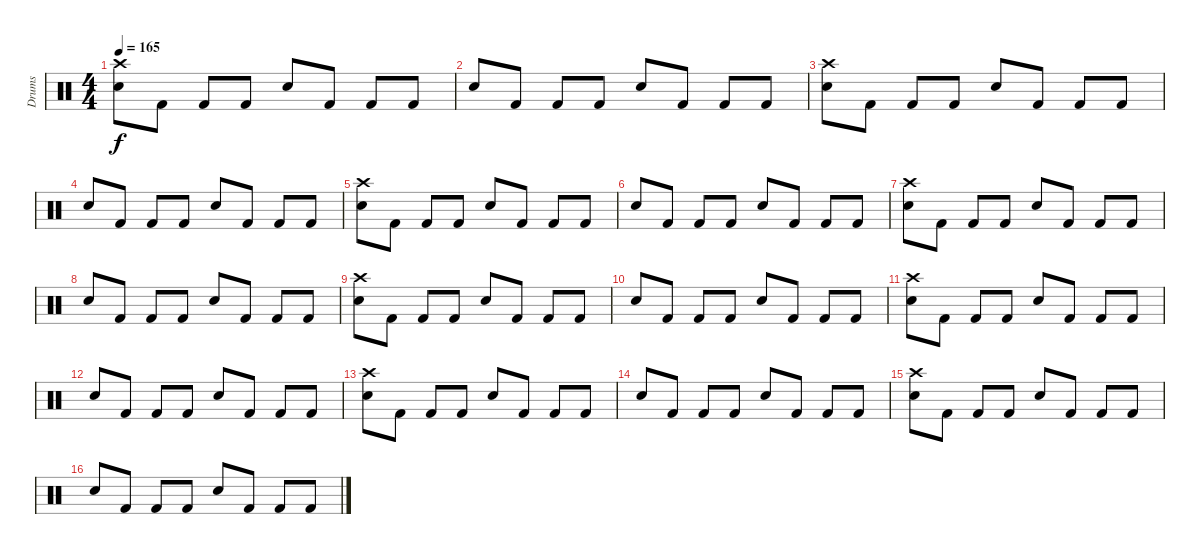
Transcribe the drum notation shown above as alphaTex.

\track ("Drums" "Drums") {instrument percussion}
\staff {score}
\articulation defaults
\ts (4 4)
\tempo 165
\clef neutral
\ks c
("Snare (hit) 2" "Crash high (hit)").8{dy f} "Kick (hit) 2".8 "Kick (hit) 2".8 "Kick (hit) 2".8 "Snare (hit) 2".8 "Kick (hit) 2".8 "Kick (hit) 2".8 "Kick (hit) 2".8 |
"Snare (hit) 2".8 "Kick (hit) 2".8 "Kick (hit) 2".8 "Kick (hit) 2".8 "Snare (hit) 2".8 "Kick (hit) 2".8 "Kick (hit) 2".8 "Kick (hit) 2".8 |
("Snare (hit) 2" "Crash high (hit)").8 "Kick (hit) 2".8 "Kick (hit) 2".8 "Kick (hit) 2".8 "Snare (hit) 2".8 "Kick (hit) 2".8 "Kick (hit) 2".8 "Kick (hit) 2".8 |
"Snare (hit) 2".8 "Kick (hit) 2".8 "Kick (hit) 2".8 "Kick (hit) 2".8 "Snare (hit) 2".8 "Kick (hit) 2".8 "Kick (hit) 2".8 "Kick (hit) 2".8 |
("Snare (hit) 2" "Crash high (hit)").8 "Kick (hit) 2".8 "Kick (hit) 2".8 "Kick (hit) 2".8 "Snare (hit) 2".8 "Kick (hit) 2".8 "Kick (hit) 2".8 "Kick (hit) 2".8 |
"Snare (hit) 2".8 "Kick (hit) 2".8 "Kick (hit) 2".8 "Kick (hit) 2".8 "Snare (hit) 2".8 "Kick (hit) 2".8 "Kick (hit) 2".8 "Kick (hit) 2".8 |
("Snare (hit) 2" "Crash high (hit)").8 "Kick (hit) 2".8 "Kick (hit) 2".8 "Kick (hit) 2".8 "Snare (hit) 2".8 "Kick (hit) 2".8 "Kick (hit) 2".8 "Kick (hit) 2".8 |
"Snare (hit) 2".8 "Kick (hit) 2".8 "Kick (hit) 2".8 "Kick (hit) 2".8 "Snare (hit) 2".8 "Kick (hit) 2".8 "Kick (hit) 2".8 "Kick (hit) 2".8 |
("Snare (hit) 2" "Crash high (hit)").8 "Kick (hit) 2".8 "Kick (hit) 2".8 "Kick (hit) 2".8 "Snare (hit) 2".8 "Kick (hit) 2".8 "Kick (hit) 2".8 "Kick (hit) 2".8 |
"Snare (hit) 2".8 "Kick (hit) 2".8 "Kick (hit) 2".8 "Kick (hit) 2".8 "Snare (hit) 2".8 "Kick (hit) 2".8 "Kick (hit) 2".8 "Kick (hit) 2".8 |
("Snare (hit) 2" "Crash high (hit)").8 "Kick (hit) 2".8 "Kick (hit) 2".8 "Kick (hit) 2".8 "Snare (hit) 2".8 "Kick (hit) 2".8 "Kick (hit) 2".8 "Kick (hit) 2".8 |
"Snare (hit) 2".8 "Kick (hit) 2".8 "Kick (hit) 2".8 "Kick (hit) 2".8 "Snare (hit) 2".8 "Kick (hit) 2".8 "Kick (hit) 2".8 "Kick (hit) 2".8 |
("Snare (hit) 2" "Crash high (hit)").8 "Kick (hit) 2".8 "Kick (hit) 2".8 "Kick (hit) 2".8 "Snare (hit) 2".8 "Kick (hit) 2".8 "Kick (hit) 2".8 "Kick (hit) 2".8 |
"Snare (hit) 2".8 "Kick (hit) 2".8 "Kick (hit) 2".8 "Kick (hit) 2".8 "Snare (hit) 2".8 "Kick (hit) 2".8 "Kick (hit) 2".8 "Kick (hit) 2".8 |
("Snare (hit) 2" "Crash high (hit)").8 "Kick (hit) 2".8 "Kick (hit) 2".8 "Kick (hit) 2".8 "Snare (hit) 2".8 "Kick (hit) 2".8 "Kick (hit) 2".8 "Kick (hit) 2".8 |
"Snare (hit) 2".8 "Kick (hit) 2".8 "Kick (hit) 2".8 "Kick (hit) 2".8 "Snare (hit) 2".8 "Kick (hit) 2".8 "Kick (hit) 2".8 "Kick (hit) 2".8
